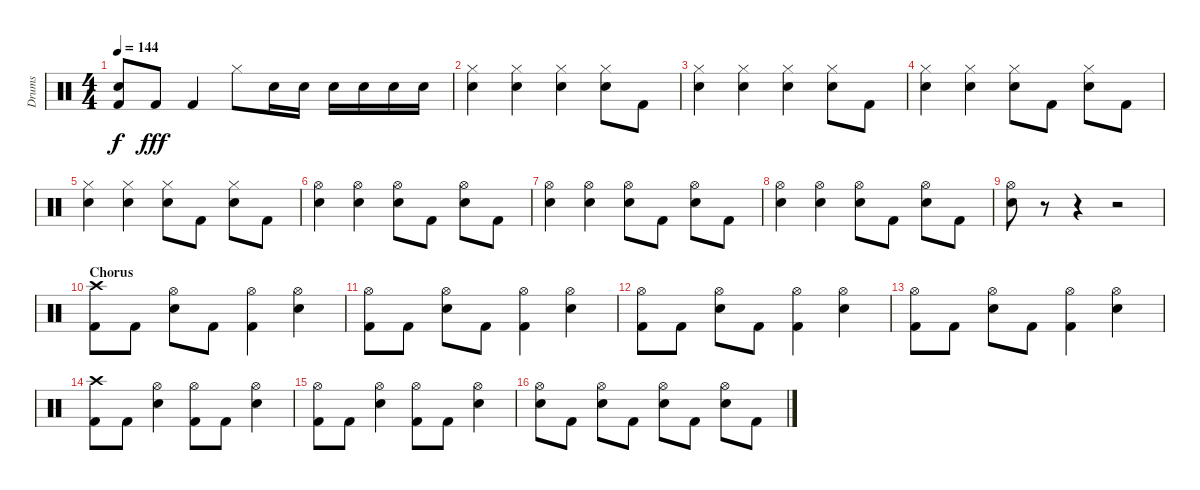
\track ("Drums" "Drums") {instrument percussion}
\staff {score}
\articulation defaults
\ts (4 4)
\tempo 144
\clef neutral
\ks c
("Snare (hit)"{t} "Kick (hit) 2").8{dy f} "Kick (hit) 2".8{dy fff} "Kick (hit) 2".4 "Hi-Hat (closed)".8 "Snare (hit) 2".16 "Snare (hit) 2".16 "Snare (hit) 2".16 "Snare (hit) 2".16 "Snare (hit) 2".16 "Snare (hit) 2".16 |
("Hi-Hat (closed)" "Snare (hit) 2").4 ("Hi-Hat (closed)" "Snare (hit) 2").4 ("Hi-Hat (closed)" "Snare (hit) 2").4 ("Hi-Hat (closed)" "Snare (hit) 2").8 "Kick (hit) 2".8 |
("Hi-Hat (closed)" "Snare (hit) 2").4 ("Hi-Hat (closed)" "Snare (hit) 2").4 ("Hi-Hat (closed)" "Snare (hit) 2").4 ("Hi-Hat (closed)" "Snare (hit) 2").8 "Kick (hit) 2".8 |
("Hi-Hat (closed)" "Snare (hit) 2").4 ("Hi-Hat (closed)" "Snare (hit) 2").4 ("Hi-Hat (closed)" "Snare (hit) 2").8 "Kick (hit) 2".8 ("Hi-Hat (closed)" "Snare (hit) 2").8 "Kick (hit) 2".8 |
("Hi-Hat (closed)" "Snare (hit) 2").4 ("Hi-Hat (closed)" "Snare (hit) 2").4 ("Hi-Hat (closed)" "Snare (hit) 2").8 "Kick (hit) 2".8 ("Hi-Hat (closed)" "Snare (hit) 2").8 "Kick (hit) 2".8 |
("Hi-Hat (open)" "Snare (hit) 2").4 ("Hi-Hat (open)" "Snare (hit) 2").4 ("Hi-Hat (open)" "Snare (hit) 2").8 "Kick (hit) 2".8 ("Hi-Hat (open)" "Snare (hit) 2").8 "Kick (hit) 2".8 |
("Hi-Hat (open)" "Snare (hit) 2").4 ("Hi-Hat (open)" "Snare (hit) 2").4 ("Hi-Hat (open)" "Snare (hit) 2").8 "Kick (hit) 2".8 ("Hi-Hat (open)" "Snare (hit) 2").8 "Kick (hit) 2".8 |
("Hi-Hat (open)" "Snare (hit) 2").4 ("Hi-Hat (open)" "Snare (hit) 2").4 ("Hi-Hat (open)" "Snare (hit) 2").8 "Kick (hit) 2".8 ("Hi-Hat (open)" "Snare (hit) 2").8 "Kick (hit) 2".8 |
("Hi-Hat (open)" "Snare (hit) 2").8 r.8 r.4 r.2 |
\section ("" "Chorus")
("Crash high (hit)" "Kick (hit) 2").8 "Kick (hit) 2".8 ("Hi-Hat (open)" "Snare (hit) 2").8 "Kick (hit) 2".8 ("Hi-Hat (open)" "Kick (hit) 2").4 ("Hi-Hat (open)" "Snare (hit) 2").4 |
("Hi-Hat (open)" "Kick (hit) 2").8 "Kick (hit) 2".8 ("Hi-Hat (open)" "Snare (hit) 2").8 "Kick (hit) 2".8 ("Hi-Hat (open)" "Kick (hit) 2").4 ("Hi-Hat (open)" "Snare (hit) 2").4 |
("Hi-Hat (open)" "Kick (hit) 2").8 "Kick (hit) 2".8 ("Hi-Hat (open)" "Snare (hit) 2").8 "Kick (hit) 2".8 ("Hi-Hat (open)" "Kick (hit) 2").4 ("Hi-Hat (open)" "Snare (hit) 2").4 |
("Hi-Hat (open)" "Kick (hit) 2").8 "Kick (hit) 2".8 ("Hi-Hat (open)" "Snare (hit) 2").8 "Kick (hit) 2".8 ("Hi-Hat (open)" "Kick (hit) 2").4 ("Hi-Hat (open)" "Snare (hit) 2").4 |
("Crash high (hit)" "Kick (hit) 2").8 "Kick (hit) 2".8 ("Hi-Hat (open)" "Snare (hit) 2").4 ("Hi-Hat (open)" "Kick (hit) 2").8 "Kick (hit) 2".8 ("Hi-Hat (open)" "Snare (hit) 2").4 |
("Hi-Hat (open)" "Kick (hit) 2").8 "Kick (hit) 2".8 ("Hi-Hat (open)" "Snare (hit) 2").4 ("Hi-Hat (open)" "Kick (hit) 2").8 "Kick (hit) 2".8 ("Hi-Hat (open)" "Snare (hit) 2").4 |
("Hi-Hat (open)" "Snare (hit) 2").8 "Kick (hit) 2".8 ("Hi-Hat (open)" "Snare (hit) 2").8 "Kick (hit) 2".8 ("Hi-Hat (open)" "Snare (hit) 2").8 "Kick (hit) 2".8 ("Hi-Hat (open)" "Snare (hit) 2").8 "Kick (hit) 2".8
